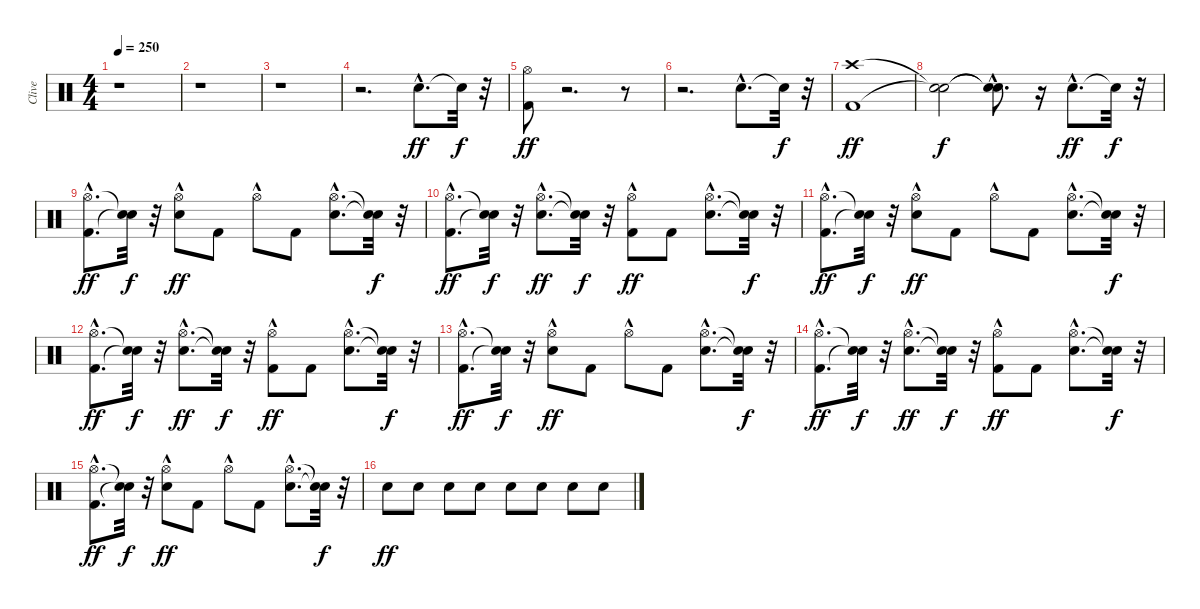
\track ("Clive" "Clive") {instrument percussion}
\staff {score}
\articulation defaults
\ts (4 4)
\tempo 250
\clef neutral
\ks c
r.1{dy ff} |
r.1 |
r.1 |
r.2{d} "Snare (hit) 2"{hac}.8{d} "Snare (hit)"{t}.32{dy f} r.32 |
("Kick (hit) 2" "Hi-Hat (open)").8{dy ff} r.2{d} r.8 |
r.2{d} "Snare (hit) 2"{hac}.8{d} "Snare (hit)"{t}.32{dy f} r.32 |
("Kick (hit) 2" "Crash high (hit)").1{dy ff} |
("Snare (hit)"{t} "Snare (hit)"{t}).2{dy f} ("Snare (hit)"{hac t} "Snare (hit)"{hac t}).8{d} r.16 "Snare (hit) 2"{hac}.8{d dy ff} "Snare (hit)"{t}.32{dy f} r.32 |
("Kick (hit) 2"{hac} "Hi-Hat (open)"{hac}).8{d dy ff} ("Snare (hit)"{t} "Snare (hit)"{t}).32{dy f} r.32 ("Snare (hit) 2" "Hi-Hat (open)"{hac}).8{dy ff} "Kick (hit) 2".8 "Hi-Hat (open)"{hac}.8 "Kick (hit) 2".8 ("Snare (hit) 2"{hac} "Hi-Hat (open)"{hac}).8{d} ("Snare (hit)"{t} "Snare (hit)"{t}).32{dy f} r.32 |
("Kick (hit) 2"{hac} "Hi-Hat (open)"{hac}).8{d dy ff} ("Snare (hit)"{t} "Snare (hit)"{t}).32{dy f} r.32 ("Snare (hit) 2"{hac} "Hi-Hat (open)"{hac}).8{d dy ff} ("Snare (hit)"{t} "Snare (hit)"{t}).32{dy f} r.32 ("Kick (hit) 2" "Hi-Hat (open)"{hac}).8{dy ff} "Kick (hit) 2".8 ("Snare (hit) 2"{hac} "Hi-Hat (open)"{hac}).8{d} ("Snare (hit)"{t} "Snare (hit)"{t}).32{dy f} r.32 |
("Kick (hit) 2"{hac} "Hi-Hat (open)"{hac}).8{d dy ff} ("Snare (hit)"{t} "Snare (hit)"{t}).32{dy f} r.32 ("Snare (hit) 2" "Hi-Hat (open)"{hac}).8{dy ff} "Kick (hit) 2".8 "Hi-Hat (open)"{hac}.8 "Kick (hit) 2".8 ("Snare (hit) 2"{hac} "Hi-Hat (open)"{hac}).8{d} ("Snare (hit)"{t} "Snare (hit)"{t}).32{dy f} r.32 |
("Kick (hit) 2"{hac} "Hi-Hat (open)"{hac}).8{d dy ff} ("Snare (hit)"{t} "Snare (hit)"{t}).32{dy f} r.32 ("Snare (hit) 2"{hac} "Hi-Hat (open)"{hac}).8{d dy ff} ("Snare (hit)"{t} "Snare (hit)"{t}).32{dy f} r.32 ("Kick (hit) 2" "Hi-Hat (open)"{hac}).8{dy ff} "Kick (hit) 2".8 ("Snare (hit) 2"{hac} "Hi-Hat (open)"{hac}).8{d} ("Snare (hit)"{t} "Snare (hit)"{t}).32{dy f} r.32 |
("Kick (hit) 2"{hac} "Hi-Hat (open)"{hac}).8{d dy ff} ("Snare (hit)"{t} "Snare (hit)"{t}).32{dy f} r.32 ("Snare (hit) 2" "Hi-Hat (open)"{hac}).8{dy ff} "Kick (hit) 2".8 "Hi-Hat (open)"{hac}.8 "Kick (hit) 2".8 ("Snare (hit) 2"{hac} "Hi-Hat (open)"{hac}).8{d} ("Snare (hit)"{t} "Snare (hit)"{t}).32{dy f} r.32 |
("Kick (hit) 2"{hac} "Hi-Hat (open)"{hac}).8{d dy ff} ("Snare (hit)"{t} "Snare (hit)"{t}).32{dy f} r.32 ("Snare (hit) 2"{hac} "Hi-Hat (open)"{hac}).8{d dy ff} ("Snare (hit)"{t} "Snare (hit)"{t}).32{dy f} r.32 ("Kick (hit) 2" "Hi-Hat (open)"{hac}).8{dy ff} "Kick (hit) 2".8 ("Snare (hit) 2"{hac} "Hi-Hat (open)"{hac}).8{d} ("Snare (hit)"{t} "Snare (hit)"{t}).32{dy f} r.32 |
("Kick (hit) 2"{hac} "Hi-Hat (open)"{hac}).8{d dy ff} ("Snare (hit)"{t} "Snare (hit)"{t}).32{dy f} r.32 ("Snare (hit) 2" "Hi-Hat (open)"{hac}).8{dy ff} "Kick (hit) 2".8 "Hi-Hat (open)"{hac}.8 "Kick (hit) 2".8 ("Snare (hit) 2"{hac} "Hi-Hat (open)"{hac}).8{d} ("Snare (hit)"{t} "Snare (hit)"{t}).32{dy f} r.32 |
"Snare (hit) 2".8{dy ff} "Snare (hit) 2".8 "Snare (hit) 2".8 "Snare (hit) 2".8 "Snare (hit) 2".8 "Snare (hit) 2".8 "Snare (hit) 2".8 "Snare (hit) 2".8
